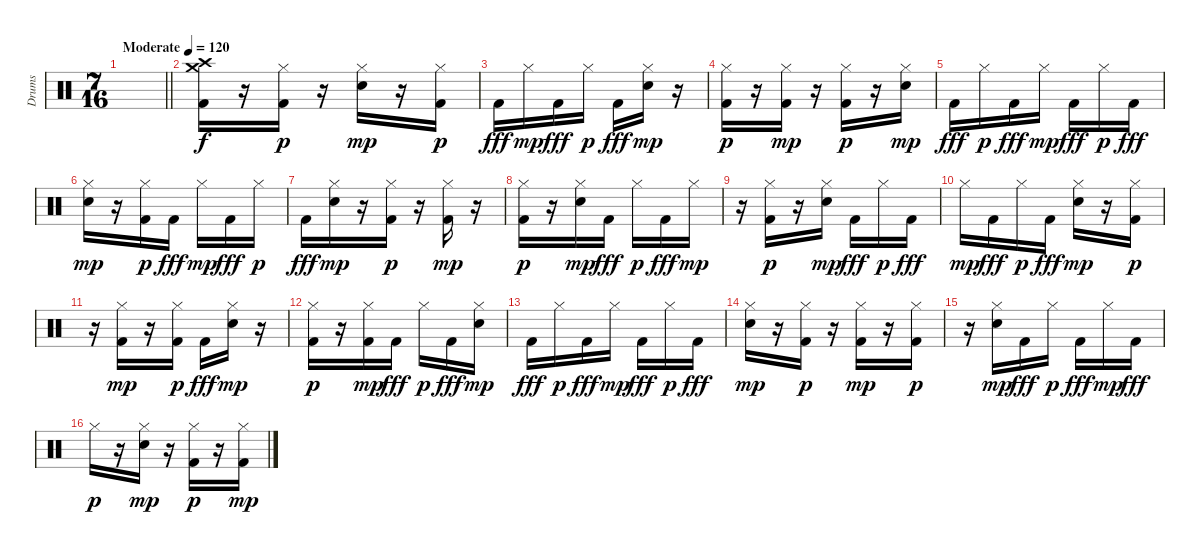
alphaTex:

\track ("Drums" "Drums") {instrument percussion}
\staff {score}
\articulation defaults
\ts (7 16)
\tempo (120 "Moderate")
\clef neutral
\barLineRight lightlight
\ks c
|
("Kick (hit) 2" "Crash high (hit)" "Crash medium (hit)").16 r.16 ("Kick (hit) 2" "Hi-Hat (closed)").16{dy p} r.16 ("Electric Snare (hit)" "Hi-Hat (closed)").16{dy mp} r.16 ("Kick (hit) 2" "Hi-Hat (closed)").16{dy p} |
"Kick (hit) 2".16{dy fff} "Hi-Hat (closed)".16{dy mp} "Kick (hit) 2".16{dy fff} "Hi-Hat (closed)".16{dy p} "Kick (hit) 2".16{dy fff} ("Electric Snare (hit)" "Hi-Hat (closed)").16{dy mp} r.16 |
("Kick (hit) 2" "Hi-Hat (closed)").16{dy p} r.16 ("Kick (hit) 2" "Hi-Hat (closed)").16{dy mp} r.16 ("Kick (hit) 2" "Hi-Hat (closed)").16{dy p} r.16 ("Electric Snare (hit)" "Hi-Hat (closed)").16{dy mp} |
"Kick (hit) 2".16{dy fff} "Hi-Hat (closed)".16{dy p} "Kick (hit) 2".16{dy fff} "Hi-Hat (closed)".16{dy mp} "Kick (hit) 2".16{dy fff} "Hi-Hat (closed)".16{dy p} "Kick (hit) 2".16{dy fff} |
("Electric Snare (hit)" "Hi-Hat (closed)").16{dy mp} r.16 ("Kick (hit) 2" "Hi-Hat (closed)").16{dy p} "Kick (hit) 2".16{dy fff} "Hi-Hat (closed)".16{dy mp} "Kick (hit) 2".16{dy fff} "Hi-Hat (closed)".16{dy p} |
"Kick (hit) 2".16{dy fff} ("Electric Snare (hit)" "Hi-Hat (closed)").16{dy mp} r.16 ("Kick (hit) 2" "Hi-Hat (closed)").16{dy p} r.16 ("Kick (hit) 2" "Hi-Hat (closed)").16{dy mp} r.16 |
("Kick (hit) 2" "Hi-Hat (closed)").16{dy p} r.16 ("Electric Snare (hit)" "Hi-Hat (closed)").16{dy mp} "Kick (hit) 2".16{dy fff} "Hi-Hat (closed)".16{dy p} "Kick (hit) 2".16{dy fff} "Hi-Hat (closed)".16{dy mp} |
r.16 ("Kick (hit) 2" "Hi-Hat (closed)").16{dy p} r.16 ("Electric Snare (hit)" "Hi-Hat (closed)").16{dy mp} "Kick (hit) 2".16{dy fff} "Hi-Hat (closed)".16{dy p} "Kick (hit) 2".16{dy fff} |
"Hi-Hat (closed)".16{dy mp} "Kick (hit) 2".16{dy fff} "Hi-Hat (closed)".16{dy p} "Kick (hit) 2".16{dy fff} ("Electric Snare (hit)" "Hi-Hat (closed)").16{dy mp} r.16 ("Kick (hit) 2" "Hi-Hat (closed)").16{dy p} |
r.16 ("Kick (hit) 2" "Hi-Hat (closed)").16{dy mp} r.16 ("Kick (hit) 2" "Hi-Hat (closed)").16{dy p} "Kick (hit) 2".16{dy fff} ("Electric Snare (hit)" "Hi-Hat (closed)").16{dy mp} r.16 |
("Kick (hit) 2" "Hi-Hat (closed)").16{dy p} r.16 ("Kick (hit) 2" "Hi-Hat (closed)").16{dy mp} "Kick (hit) 2".16{dy fff} "Hi-Hat (closed)".16{dy p} "Kick (hit) 2".16{dy fff} ("Electric Snare (hit)" "Hi-Hat (closed)").16{dy mp} |
"Kick (hit) 2".16{dy fff} "Hi-Hat (closed)".16{dy p} "Kick (hit) 2".16{dy fff} "Hi-Hat (closed)".16{dy mp} "Kick (hit) 2".16{dy fff} "Hi-Hat (closed)".16{dy p} "Kick (hit) 2".16{dy fff} |
("Electric Snare (hit)" "Hi-Hat (closed)").16{dy mp} r.16 ("Kick (hit) 2" "Hi-Hat (closed)").16{dy p} r.16 ("Kick (hit) 2" "Hi-Hat (closed)").16{dy mp} r.16 ("Kick (hit) 2" "Hi-Hat (closed)").16{dy p} |
r.16 ("Electric Snare (hit)" "Hi-Hat (closed)").16{dy mp} "Kick (hit) 2".16{dy fff} "Hi-Hat (closed)".16{dy p} "Kick (hit) 2".16{dy fff} "Hi-Hat (closed)".16{dy mp} "Kick (hit) 2".16{dy fff} |
"Hi-Hat (closed)".16{dy p} r.16 ("Electric Snare (hit)" "Hi-Hat (closed)").16{dy mp} r.16 ("Kick (hit) 2" "Hi-Hat (closed)").16{dy p} r.16 ("Kick (hit) 2" "Hi-Hat (closed)").16{dy mp}
